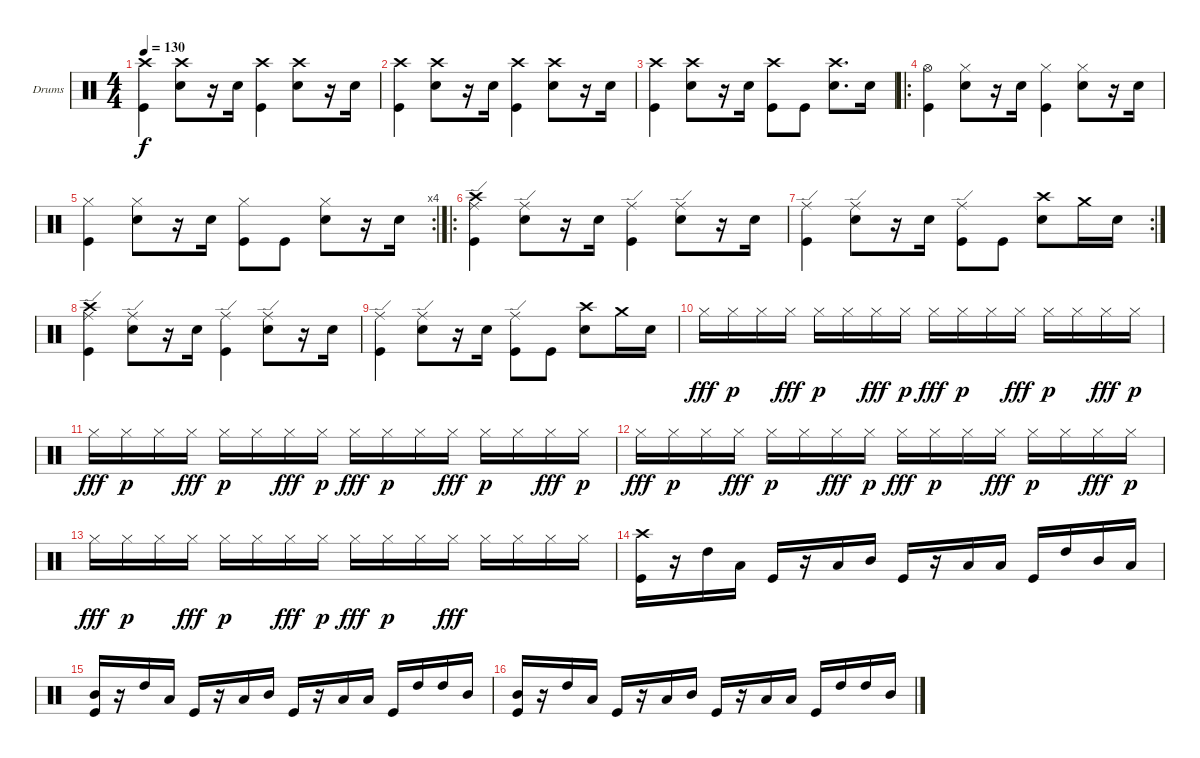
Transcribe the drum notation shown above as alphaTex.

\bracketExtendMode groupsimilarinstruments
\firstSystemTrackNameOrientation horizontal
\otherSystemsTrackNameOrientation horizontal
\track ("Drumkit" "Drums") {instrument percussion}
\staff {score}
\articulation defaults
\ts (4 4)
\tempo 130
\clef neutral
\ks c
("Kick (hit)" "Crash high (hit)").4{dy f} ("Snare (hit) 2" "Crash high (hit)").8 r.16 "Snare (hit) 2".16 ("Kick (hit)" "Crash high (hit)").4 ("Snare (hit) 2" "Crash high (hit)").8 r.16 "Snare (hit) 2".16 |
("Kick (hit)" "Crash high (hit)").4 ("Snare (hit) 2" "Crash high (hit)").8 r.16 "Snare (hit) 2".16 ("Kick (hit)" "Crash high (hit)").4 ("Snare (hit) 2" "Crash high (hit)").8 r.16 "Snare (hit) 2".16 |
("Kick (hit)" "Crash high (hit)").4 ("Snare (hit) 2" "Crash high (hit)").8 r.16 "Snare (hit) 2".16 ("Kick (hit)" "Crash high (hit)").8 "Kick (hit)".8 ("Snare (hit) 2" "Crash high (hit)").8{d} "Snare (hit) 2".16 |
\ro
("Kick (hit)" "Hi-Hat (open)").4 ("Snare (hit) 2" "Hi-Hat (closed)").8 r.16 "Snare (hit) 2".16 ("Kick (hit)" "Hi-Hat (closed)").4 ("Snare (hit) 2" "Hi-Hat (closed)").8 r.16 "Snare (hit) 2".16 |
\rc 4
("Kick (hit)" "Hi-Hat (closed)").4 ("Snare (hit) 2" "Hi-Hat (closed)").8 r.16 "Snare (hit) 2".16 ("Kick (hit)" "Hi-Hat (closed)").8 "Kick (hit)".8 ("Snare (hit) 2" "Hi-Hat (closed)").8 r.16 "Snare (hit) 2".16 |
\ro
("Kick (hit)" "Ride (edge)" "Crash high (hit)").4 ("Snare (hit) 2" "Ride (edge)").8 r.16 "Snare (hit) 2".16 ("Kick (hit)" "Ride (edge)").4 ("Snare (hit) 2" "Ride (edge)").8 r.16 "Snare (hit) 2".16 |
\rc 2
("Kick (hit)" "Ride (edge)").4 ("Snare (hit) 2" "Ride (edge)").8 r.16 "Snare (hit) 2".16 ("Kick (hit)" "Ride (edge)").8 "Kick (hit)".8 ("Snare (hit) 2" "Crash high (hit)").8 "Crash medium (hit)".16 "Snare (hit) 2".16 |
("Kick (hit)" "Ride (edge)" "Crash high (hit)").4 ("Snare (hit) 2" "Ride (edge)").8 r.16 "Snare (hit) 2".16 ("Kick (hit)" "Ride (edge)").4 ("Snare (hit) 2" "Ride (edge)").8 r.16 "Snare (hit) 2".16 |
("Kick (hit)" "Ride (edge)").4 ("Snare (hit) 2" "Ride (edge)").8 r.16 "Snare (hit) 2".16 ("Kick (hit)" "Ride (edge)").8 "Kick (hit)".8 ("Snare (hit) 2" "Crash high (hit)").8 "Crash medium (hit)".16 "Snare (hit) 2".16 |
"Hi-Hat (closed)".16{dy fff} "Hi-Hat (closed)".16{dy p} "Hi-Hat (closed)".16 "Hi-Hat (closed)".16{dy fff} "Hi-Hat (closed)".16{dy p} "Hi-Hat (closed)".16 "Hi-Hat (closed)".16{dy fff} "Hi-Hat (closed)".16{dy p} "Hi-Hat (closed)".16{dy fff} "Hi-Hat (closed)".16{dy p} "Hi-Hat (closed)".16 "Hi-Hat (closed)".16{dy fff} "Hi-Hat (closed)".16{dy p} "Hi-Hat (closed)".16 "Hi-Hat (closed)".16{dy fff} "Hi-Hat (closed)".16{dy p} |
"Hi-Hat (closed)".16{dy fff} "Hi-Hat (closed)".16{dy p} "Hi-Hat (closed)".16 "Hi-Hat (closed)".16{dy fff} "Hi-Hat (closed)".16{dy p} "Hi-Hat (closed)".16 "Hi-Hat (closed)".16{dy fff} "Hi-Hat (closed)".16{dy p} "Hi-Hat (closed)".16{dy fff} "Hi-Hat (closed)".16{dy p} "Hi-Hat (closed)".16 "Hi-Hat (closed)".16{dy fff} "Hi-Hat (closed)".16{dy p} "Hi-Hat (closed)".16 "Hi-Hat (closed)".16{dy fff} "Hi-Hat (closed)".16{dy p} |
"Hi-Hat (closed)".16{dy fff} "Hi-Hat (closed)".16{dy p} "Hi-Hat (closed)".16 "Hi-Hat (closed)".16{dy fff} "Hi-Hat (closed)".16{dy p} "Hi-Hat (closed)".16 "Hi-Hat (closed)".16{dy fff} "Hi-Hat (closed)".16{dy p} "Hi-Hat (closed)".16{dy fff} "Hi-Hat (closed)".16{dy p} "Hi-Hat (closed)".16 "Hi-Hat (closed)".16{dy fff} "Hi-Hat (closed)".16{dy p} "Hi-Hat (closed)".16 "Hi-Hat (closed)".16{dy fff} "Hi-Hat (closed)".16{dy p} |
"Hi-Hat (closed)".16{dy fff} "Hi-Hat (closed)".16{dy p} "Hi-Hat (closed)".16 "Hi-Hat (closed)".16{dy fff} "Hi-Hat (closed)".16{dy p} "Hi-Hat (closed)".16 "Hi-Hat (closed)".16{dy fff} "Hi-Hat (closed)".16{dy p} "Hi-Hat (closed)".16{dy fff} "Hi-Hat (closed)".16{dy p} "Hi-Hat (closed)".16 "Hi-Hat (closed)".16{dy fff} "Hi-Hat (closed)".16 "Hi-Hat (closed)".16 "Hi-Hat (closed)".16 "Hi-Hat (closed)".16 |
("Crash high (hit)" "Kick (hit)").16 r.16 "High Tom (hit)".16 "Low Tom (hit)".16 "Kick (hit)".16 r.16 "Low Tom (hit)".16 "Mid Tom (hit)".16 "Kick (hit)".16 r.16 "Low Tom (hit)".16 "Low Tom (hit)".16 "Kick (hit)".16 "High Tom (hit)".16 "Mid Tom (hit)".16 "Low Tom (hit)".16 |
("Mid Tom (hit)" "Kick (hit)").16 r.16 "High Tom (hit)".16 "Low Tom (hit)".16 "Kick (hit)".16 r.16 "Low Tom (hit)".16 "Mid Tom (hit)".16 "Kick (hit)".16 r.16 "Low Tom (hit)".16 "Low Tom (hit)".16 "Kick (hit)".16 "High Tom (hit)".16 "High Tom (hit)".16 "Mid Tom (hit)".16 |
("Mid Tom (hit)" "Kick (hit)").16 r.16 "High Tom (hit)".16 "Low Tom (hit)".16 "Kick (hit)".16 r.16 "Low Tom (hit)".16 "Mid Tom (hit)".16 "Kick (hit)".16 r.16 "Low Tom (hit)".16 "Low Tom (hit)".16 "Kick (hit)".16 "High Tom (hit)".16 "High Tom (hit)".16 "Mid Tom (hit)".16
